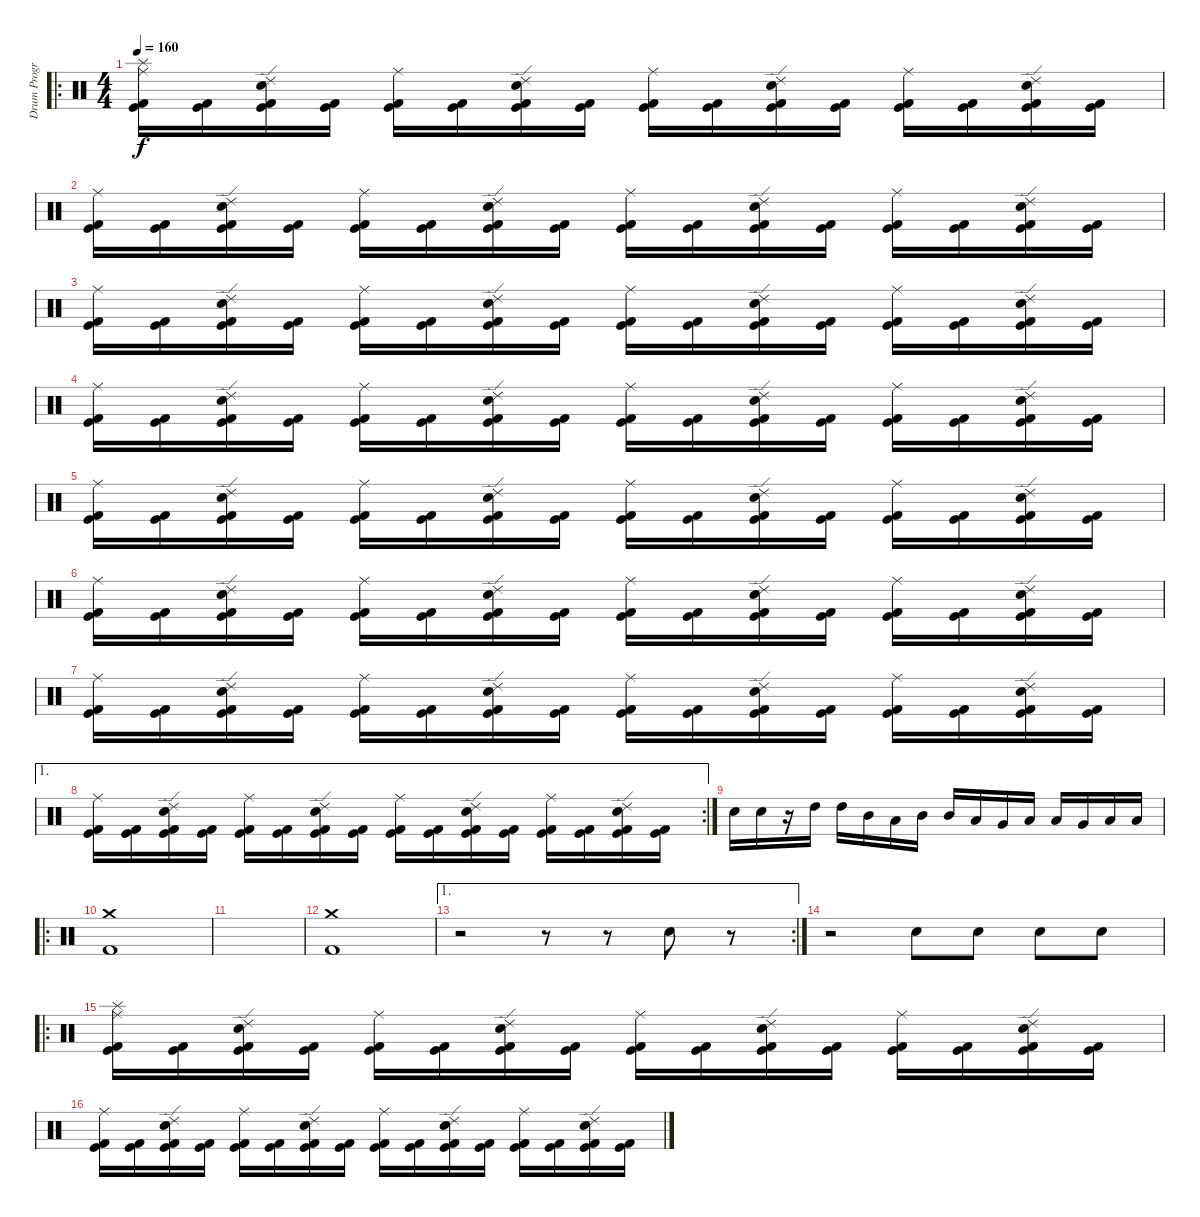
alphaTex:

\track ("Drum Program - BG" "Drum Progr") {instrument percussion}
\staff {score}
\articulation defaults
\ro
\ts (4 4)
\tempo 160
\clef neutral
\ks c
("Kick (hit)" "Kick (hit) 2" "Splash (hit)" "Ride (middle)").16{dy f} ("Kick (hit)" "Kick (hit) 2").16 ("Kick (hit)" "Kick (hit) 2" "Electric Snare (hit)" "Ride (edge) 2").16 ("Kick (hit)" "Kick (hit) 2").16 ("Kick (hit)" "Kick (hit) 2" "Ride (middle)").16 ("Kick (hit)" "Kick (hit) 2").16 ("Kick (hit)" "Kick (hit) 2" "Electric Snare (hit)" "Ride (edge) 2").16 ("Kick (hit)" "Kick (hit) 2").16 ("Kick (hit)" "Kick (hit) 2" "Ride (middle)").16 ("Kick (hit)" "Kick (hit) 2").16 ("Kick (hit)" "Kick (hit) 2" "Electric Snare (hit)" "Ride (edge) 2").16 ("Kick (hit)" "Kick (hit) 2").16 ("Kick (hit)" "Kick (hit) 2" "Ride (middle)").16 ("Kick (hit)" "Kick (hit) 2").16 ("Kick (hit)" "Kick (hit) 2" "Electric Snare (hit)" "Ride (edge) 2").16 ("Kick (hit)" "Kick (hit) 2").16 |
("Kick (hit)" "Kick (hit) 2" "Ride (middle)").16 ("Kick (hit)" "Kick (hit) 2").16 ("Kick (hit)" "Kick (hit) 2" "Electric Snare (hit)" "Ride (edge) 2").16 ("Kick (hit)" "Kick (hit) 2").16 ("Kick (hit)" "Kick (hit) 2" "Ride (middle)").16 ("Kick (hit)" "Kick (hit) 2").16 ("Kick (hit)" "Kick (hit) 2" "Electric Snare (hit)" "Ride (edge) 2").16 ("Kick (hit)" "Kick (hit) 2").16 ("Kick (hit)" "Kick (hit) 2" "Ride (middle)").16 ("Kick (hit)" "Kick (hit) 2").16 ("Kick (hit)" "Kick (hit) 2" "Electric Snare (hit)" "Ride (edge) 2").16 ("Kick (hit)" "Kick (hit) 2").16 ("Kick (hit)" "Kick (hit) 2" "Ride (middle)").16 ("Kick (hit)" "Kick (hit) 2").16 ("Kick (hit)" "Kick (hit) 2" "Electric Snare (hit)" "Ride (edge) 2").16 ("Kick (hit)" "Kick (hit) 2").16 |
("Kick (hit)" "Kick (hit) 2" "Ride (middle)").16 ("Kick (hit)" "Kick (hit) 2").16 ("Kick (hit)" "Kick (hit) 2" "Electric Snare (hit)" "Ride (edge) 2").16 ("Kick (hit)" "Kick (hit) 2").16 ("Kick (hit)" "Kick (hit) 2" "Ride (middle)").16 ("Kick (hit)" "Kick (hit) 2").16 ("Kick (hit)" "Kick (hit) 2" "Electric Snare (hit)" "Ride (edge) 2").16 ("Kick (hit)" "Kick (hit) 2").16 ("Kick (hit)" "Kick (hit) 2" "Ride (middle)").16 ("Kick (hit)" "Kick (hit) 2").16 ("Kick (hit)" "Kick (hit) 2" "Electric Snare (hit)" "Ride (edge) 2").16 ("Kick (hit)" "Kick (hit) 2").16 ("Kick (hit)" "Kick (hit) 2" "Ride (middle)").16 ("Kick (hit)" "Kick (hit) 2").16 ("Kick (hit)" "Kick (hit) 2" "Electric Snare (hit)" "Ride (edge) 2").16 ("Kick (hit)" "Kick (hit) 2").16 |
("Kick (hit)" "Kick (hit) 2" "Ride (middle)").16 ("Kick (hit)" "Kick (hit) 2").16 ("Kick (hit)" "Kick (hit) 2" "Electric Snare (hit)" "Ride (edge) 2").16 ("Kick (hit)" "Kick (hit) 2").16 ("Kick (hit)" "Kick (hit) 2" "Ride (middle)").16 ("Kick (hit)" "Kick (hit) 2").16 ("Kick (hit)" "Kick (hit) 2" "Electric Snare (hit)" "Ride (edge) 2").16 ("Kick (hit)" "Kick (hit) 2").16 ("Kick (hit)" "Kick (hit) 2" "Ride (middle)").16 ("Kick (hit)" "Kick (hit) 2").16 ("Kick (hit)" "Kick (hit) 2" "Electric Snare (hit)" "Ride (edge) 2").16 ("Kick (hit)" "Kick (hit) 2").16 ("Kick (hit)" "Kick (hit) 2" "Ride (middle)").16 ("Kick (hit)" "Kick (hit) 2").16 ("Kick (hit)" "Kick (hit) 2" "Electric Snare (hit)" "Ride (edge) 2").16 ("Kick (hit)" "Kick (hit) 2").16 |
("Kick (hit)" "Kick (hit) 2" "Ride (middle)").16 ("Kick (hit)" "Kick (hit) 2").16 ("Kick (hit)" "Kick (hit) 2" "Electric Snare (hit)" "Ride (edge) 2").16 ("Kick (hit)" "Kick (hit) 2").16 ("Kick (hit)" "Kick (hit) 2" "Ride (middle)").16 ("Kick (hit)" "Kick (hit) 2").16 ("Kick (hit)" "Kick (hit) 2" "Electric Snare (hit)" "Ride (edge) 2").16 ("Kick (hit)" "Kick (hit) 2").16 ("Kick (hit)" "Kick (hit) 2" "Ride (middle)").16 ("Kick (hit)" "Kick (hit) 2").16 ("Kick (hit)" "Kick (hit) 2" "Electric Snare (hit)" "Ride (edge) 2").16 ("Kick (hit)" "Kick (hit) 2").16 ("Kick (hit)" "Kick (hit) 2" "Ride (middle)").16 ("Kick (hit)" "Kick (hit) 2").16 ("Kick (hit)" "Kick (hit) 2" "Electric Snare (hit)" "Ride (edge) 2").16 ("Kick (hit)" "Kick (hit) 2").16 |
("Kick (hit)" "Kick (hit) 2" "Ride (middle)").16 ("Kick (hit)" "Kick (hit) 2").16 ("Kick (hit)" "Kick (hit) 2" "Electric Snare (hit)" "Ride (edge) 2").16 ("Kick (hit)" "Kick (hit) 2").16 ("Kick (hit)" "Kick (hit) 2" "Ride (middle)").16 ("Kick (hit)" "Kick (hit) 2").16 ("Kick (hit)" "Kick (hit) 2" "Electric Snare (hit)" "Ride (edge) 2").16 ("Kick (hit)" "Kick (hit) 2").16 ("Kick (hit)" "Kick (hit) 2" "Ride (middle)").16 ("Kick (hit)" "Kick (hit) 2").16 ("Kick (hit)" "Kick (hit) 2" "Electric Snare (hit)" "Ride (edge) 2").16 ("Kick (hit)" "Kick (hit) 2").16 ("Kick (hit)" "Kick (hit) 2" "Ride (middle)").16 ("Kick (hit)" "Kick (hit) 2").16 ("Kick (hit)" "Kick (hit) 2" "Electric Snare (hit)" "Ride (edge) 2").16 ("Kick (hit)" "Kick (hit) 2").16 |
("Kick (hit)" "Kick (hit) 2" "Ride (middle)").16 ("Kick (hit)" "Kick (hit) 2").16 ("Kick (hit)" "Kick (hit) 2" "Electric Snare (hit)" "Ride (edge) 2").16 ("Kick (hit)" "Kick (hit) 2").16 ("Kick (hit)" "Kick (hit) 2" "Ride (middle)").16 ("Kick (hit)" "Kick (hit) 2").16 ("Kick (hit)" "Kick (hit) 2" "Electric Snare (hit)" "Ride (edge) 2").16 ("Kick (hit)" "Kick (hit) 2").16 ("Kick (hit)" "Kick (hit) 2" "Ride (middle)").16 ("Kick (hit)" "Kick (hit) 2").16 ("Kick (hit)" "Kick (hit) 2" "Electric Snare (hit)" "Ride (edge) 2").16 ("Kick (hit)" "Kick (hit) 2").16 ("Kick (hit)" "Kick (hit) 2" "Ride (middle)").16 ("Kick (hit)" "Kick (hit) 2").16 ("Kick (hit)" "Kick (hit) 2" "Electric Snare (hit)" "Ride (edge) 2").16 ("Kick (hit)" "Kick (hit) 2").16 |
\ae 1
\rc 2
("Kick (hit)" "Kick (hit) 2" "Ride (middle)").16 ("Kick (hit)" "Kick (hit) 2").16 ("Kick (hit)" "Kick (hit) 2" "Electric Snare (hit)" "Ride (edge) 2").16 ("Kick (hit)" "Kick (hit) 2").16 ("Kick (hit)" "Kick (hit) 2" "Ride (middle)").16 ("Kick (hit)" "Kick (hit) 2").16 ("Kick (hit)" "Kick (hit) 2" "Electric Snare (hit)" "Ride (edge) 2").16 ("Kick (hit)" "Kick (hit) 2").16 ("Kick (hit)" "Kick (hit) 2" "Ride (middle)").16 ("Kick (hit)" "Kick (hit) 2").16 ("Kick (hit)" "Kick (hit) 2" "Electric Snare (hit)" "Ride (edge) 2").16 ("Kick (hit)" "Kick (hit) 2").16 ("Kick (hit)" "Kick (hit) 2" "Ride (middle)").16 ("Kick (hit)" "Kick (hit) 2").16 ("Kick (hit)" "Kick (hit) 2" "Electric Snare (hit)" "Ride (edge) 2").16 ("Kick (hit)" "Kick (hit) 2").16 |
"Electric Snare (hit)".16 "Electric Snare (hit)".16 r.16 "High Tom (hit)".16 "High Tom (hit)".16 "Mid Tom (hit)".16 "Low Tom (hit)".16 "Mid Tom (hit)".16 "Mid Tom (hit)".16 "Low Tom (hit)".16 "Very Low Tom (hit)".16 "Low Floor Tom (hit)".16 "Low Tom (hit)".16 "Very Low Tom (hit)".16 "Low Floor Tom (hit)".16 "Low Floor Tom (hit)".16 |
\ro
("Kick (hit) 2" "Crash medium (hit)").1 |
|
("Kick (hit) 2" "Crash medium (hit)").1 |
\ae 1
\rc 2
r.2 r.8 r.8 "Electric Snare (hit)".8 r.8 |
r.2 "Electric Snare (hit)".8 "Electric Snare (hit)".8 "Electric Snare (hit)".8 "Electric Snare (hit)".8 |
\ro
("Kick (hit)" "Kick (hit) 2" "Splash (hit)" "Ride (middle)").16 ("Kick (hit)" "Kick (hit) 2").16 ("Kick (hit)" "Kick (hit) 2" "Electric Snare (hit)" "Ride (edge) 2").16 ("Kick (hit)" "Kick (hit) 2").16 ("Kick (hit)" "Kick (hit) 2" "Ride (middle)").16 ("Kick (hit)" "Kick (hit) 2").16 ("Kick (hit)" "Kick (hit) 2" "Electric Snare (hit)" "Ride (edge) 2").16 ("Kick (hit)" "Kick (hit) 2").16 ("Kick (hit)" "Kick (hit) 2" "Ride (middle)").16 ("Kick (hit)" "Kick (hit) 2").16 ("Kick (hit)" "Kick (hit) 2" "Electric Snare (hit)" "Ride (edge) 2").16 ("Kick (hit)" "Kick (hit) 2").16 ("Kick (hit)" "Kick (hit) 2" "Ride (middle)").16 ("Kick (hit)" "Kick (hit) 2").16 ("Kick (hit)" "Kick (hit) 2" "Electric Snare (hit)" "Ride (edge) 2").16 ("Kick (hit)" "Kick (hit) 2").16 |
("Kick (hit)" "Kick (hit) 2" "Ride (middle)").16 ("Kick (hit)" "Kick (hit) 2").16 ("Kick (hit)" "Kick (hit) 2" "Electric Snare (hit)" "Ride (edge) 2").16 ("Kick (hit)" "Kick (hit) 2").16 ("Kick (hit)" "Kick (hit) 2" "Ride (middle)").16 ("Kick (hit)" "Kick (hit) 2").16 ("Kick (hit)" "Kick (hit) 2" "Electric Snare (hit)" "Ride (edge) 2").16 ("Kick (hit)" "Kick (hit) 2").16 ("Kick (hit)" "Kick (hit) 2" "Ride (middle)").16 ("Kick (hit)" "Kick (hit) 2").16 ("Kick (hit)" "Kick (hit) 2" "Electric Snare (hit)" "Ride (edge) 2").16 ("Kick (hit)" "Kick (hit) 2").16 ("Kick (hit)" "Kick (hit) 2" "Ride (middle)").16 ("Kick (hit)" "Kick (hit) 2").16 ("Kick (hit)" "Kick (hit) 2" "Electric Snare (hit)" "Ride (edge) 2").16 ("Kick (hit)" "Kick (hit) 2").16
